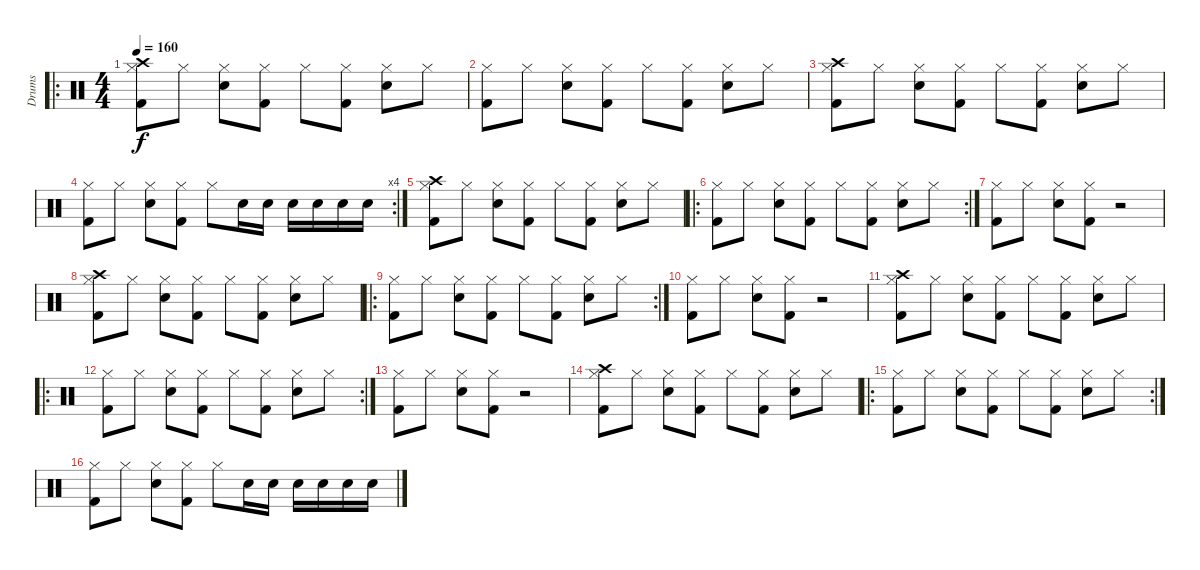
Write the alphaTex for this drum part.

\track ("Drums" "Drums") {instrument percussion}
\staff {score}
\articulation defaults
\ro
\ts (4 4)
\tempo 160
\clef neutral
\ks c
("Crash high (hit)" "Hi-Hat (closed)" "Kick (hit) 2").8{dy f} "Hi-Hat (closed)".8 ("Hi-Hat (closed)" "Snare (hit) 2").8 ("Hi-Hat (closed)" "Kick (hit) 2").8 "Hi-Hat (closed)".8 ("Hi-Hat (closed)" "Kick (hit) 2").8 ("Hi-Hat (closed)" "Snare (hit) 2").8 "Hi-Hat (closed)".8 |
("Hi-Hat (closed)" "Kick (hit) 2").8 "Hi-Hat (closed)".8 ("Hi-Hat (closed)" "Snare (hit) 2").8 ("Hi-Hat (closed)" "Kick (hit) 2").8 "Hi-Hat (closed)".8 ("Hi-Hat (closed)" "Kick (hit) 2").8 ("Hi-Hat (closed)" "Snare (hit) 2").8 "Hi-Hat (closed)".8 |
("Crash high (hit)" "Hi-Hat (closed)" "Kick (hit) 2").8 "Hi-Hat (closed)".8 ("Hi-Hat (closed)" "Snare (hit) 2").8 ("Hi-Hat (closed)" "Kick (hit) 2").8 "Hi-Hat (closed)".8 ("Hi-Hat (closed)" "Kick (hit) 2").8 ("Hi-Hat (closed)" "Snare (hit) 2").8 "Hi-Hat (closed)".8 |
\rc 4
("Hi-Hat (closed)" "Kick (hit) 2").8 "Hi-Hat (closed)".8 ("Hi-Hat (closed)" "Snare (hit) 2").8 ("Hi-Hat (closed)" "Kick (hit) 2").8 "Hi-Hat (closed)".8 "Snare (hit) 2".16 "Snare (hit) 2".16 "Snare (hit) 2".16 "Snare (hit) 2".16 "Snare (hit) 2".16 "Snare (hit) 2".16 |
("Crash high (hit)" "Hi-Hat (closed)" "Kick (hit) 2").8 "Hi-Hat (closed)".8 ("Hi-Hat (closed)" "Snare (hit) 2").8 ("Hi-Hat (closed)" "Kick (hit) 2").8 "Hi-Hat (closed)".8 ("Hi-Hat (closed)" "Kick (hit) 2").8 ("Hi-Hat (closed)" "Snare (hit) 2").8 "Hi-Hat (closed)".8 |
\ro
\rc 2
("Hi-Hat (closed)" "Kick (hit) 2").8 "Hi-Hat (closed)".8 ("Hi-Hat (closed)" "Snare (hit) 2").8 ("Hi-Hat (closed)" "Kick (hit) 2").8 "Hi-Hat (closed)".8 ("Hi-Hat (closed)" "Kick (hit) 2").8 ("Hi-Hat (closed)" "Snare (hit) 2").8 "Hi-Hat (closed)".8 |
("Hi-Hat (closed)" "Kick (hit) 2").8 "Hi-Hat (closed)".8 ("Hi-Hat (closed)" "Snare (hit) 2").8 ("Hi-Hat (closed)" "Kick (hit) 2").8 r.2 |
("Crash high (hit)" "Hi-Hat (closed)" "Kick (hit) 2").8 "Hi-Hat (closed)".8 ("Hi-Hat (closed)" "Snare (hit) 2").8 ("Hi-Hat (closed)" "Kick (hit) 2").8 "Hi-Hat (closed)".8 ("Hi-Hat (closed)" "Kick (hit) 2").8 ("Hi-Hat (closed)" "Snare (hit) 2").8 "Hi-Hat (closed)".8 |
\ro
\rc 2
("Hi-Hat (closed)" "Kick (hit) 2").8 "Hi-Hat (closed)".8 ("Hi-Hat (closed)" "Snare (hit) 2").8 ("Hi-Hat (closed)" "Kick (hit) 2").8 "Hi-Hat (closed)".8 ("Hi-Hat (closed)" "Kick (hit) 2").8 ("Hi-Hat (closed)" "Snare (hit) 2").8 "Hi-Hat (closed)".8 |
("Hi-Hat (closed)" "Kick (hit) 2").8 "Hi-Hat (closed)".8 ("Hi-Hat (closed)" "Snare (hit) 2").8 ("Hi-Hat (closed)" "Kick (hit) 2").8 r.2 |
("Crash high (hit)" "Hi-Hat (closed)" "Kick (hit) 2").8 "Hi-Hat (closed)".8 ("Hi-Hat (closed)" "Snare (hit) 2").8 ("Hi-Hat (closed)" "Kick (hit) 2").8 "Hi-Hat (closed)".8 ("Hi-Hat (closed)" "Kick (hit) 2").8 ("Hi-Hat (closed)" "Snare (hit) 2").8 "Hi-Hat (closed)".8 |
\ro
\rc 2
("Hi-Hat (closed)" "Kick (hit) 2").8 "Hi-Hat (closed)".8 ("Hi-Hat (closed)" "Snare (hit) 2").8 ("Hi-Hat (closed)" "Kick (hit) 2").8 "Hi-Hat (closed)".8 ("Hi-Hat (closed)" "Kick (hit) 2").8 ("Hi-Hat (closed)" "Snare (hit) 2").8 "Hi-Hat (closed)".8 |
("Hi-Hat (closed)" "Kick (hit) 2").8 "Hi-Hat (closed)".8 ("Hi-Hat (closed)" "Snare (hit) 2").8 ("Hi-Hat (closed)" "Kick (hit) 2").8 r.2 |
("Crash high (hit)" "Hi-Hat (closed)" "Kick (hit) 2").8 "Hi-Hat (closed)".8 ("Hi-Hat (closed)" "Snare (hit) 2").8 ("Hi-Hat (closed)" "Kick (hit) 2").8 "Hi-Hat (closed)".8 ("Hi-Hat (closed)" "Kick (hit) 2").8 ("Hi-Hat (closed)" "Snare (hit) 2").8 "Hi-Hat (closed)".8 |
\ro
\rc 2
("Hi-Hat (closed)" "Kick (hit) 2").8 "Hi-Hat (closed)".8 ("Hi-Hat (closed)" "Snare (hit) 2").8 ("Hi-Hat (closed)" "Kick (hit) 2").8 "Hi-Hat (closed)".8 ("Hi-Hat (closed)" "Kick (hit) 2").8 ("Hi-Hat (closed)" "Snare (hit) 2").8 "Hi-Hat (closed)".8 |
("Hi-Hat (closed)" "Kick (hit) 2").8 "Hi-Hat (closed)".8 ("Hi-Hat (closed)" "Snare (hit) 2").8 ("Hi-Hat (closed)" "Kick (hit) 2").8 "Hi-Hat (closed)".8 "Snare (hit) 2".16 "Snare (hit) 2".16 "Snare (hit) 2".16 "Snare (hit) 2".16 "Snare (hit) 2".16 "Snare (hit) 2".16
